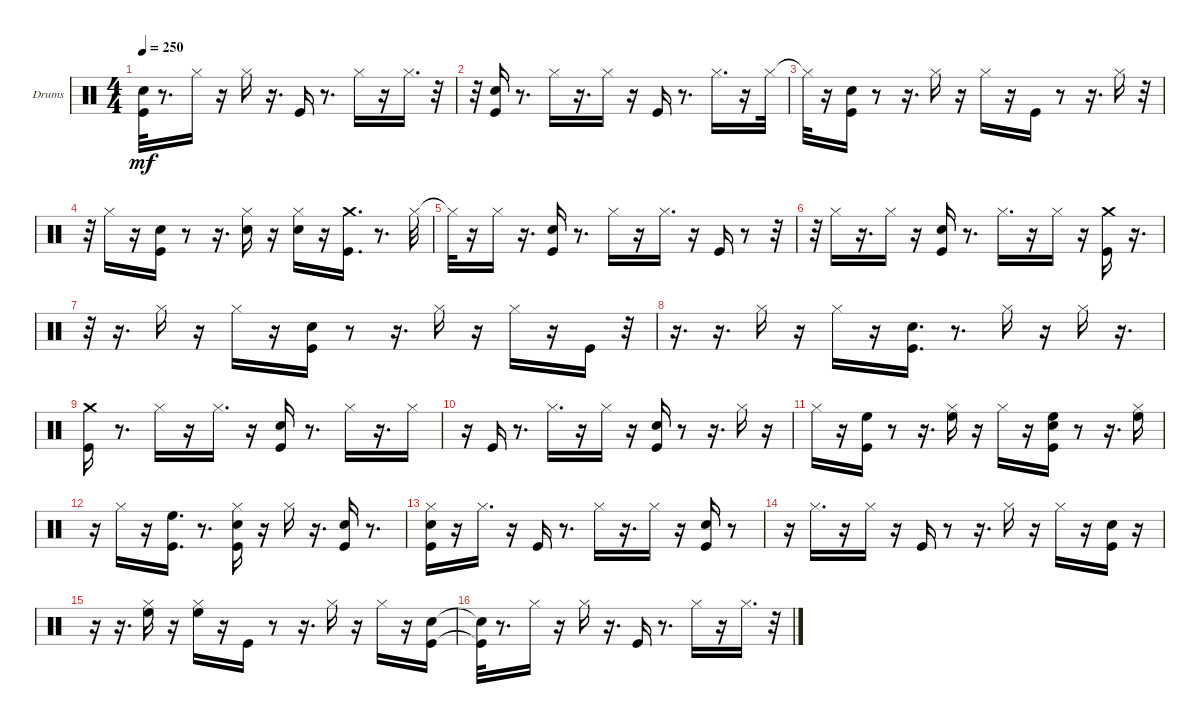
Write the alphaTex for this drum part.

\bracketExtendMode groupsimilarinstruments
\firstSystemTrackNameOrientation horizontal
\otherSystemsTrackNameOrientation horizontal
\track ("Drums" "Drums") {instrument percussion}
\staff {score}
\articulation defaults
\ts (4 4)
\tempo 250
\clef neutral
\ks c
("Kick (hit)"{t} "Snare (hit) 2"{t}).32{dy mf} r.8{d} "Hi-Hat (closed)".16 r.16 "Hi-Hat (closed)".16 r.16{d} "Kick (hit)".16 r.8{d} "Hi-Hat (closed)".16 r.16 "Hi-Hat (closed)".16{d} r.32 |
r.32 ("Kick (hit)" "Snare (hit) 2").16 r.8{d} "Hi-Hat (closed)".16 r.16{d} "Hi-Hat (closed)".16 r.16 "Kick (hit)".16 r.8{d} "Hi-Hat (closed)".16{d} r.16 "Hi-Hat (closed)".32 |
"Hi-Hat (closed)"{t}.32 r.16 ("Kick (hit)" "Snare (hit) 2").16 r.8 r.16{d} "Hi-Hat (closed)".16 r.16 "Hi-Hat (closed)".16 r.16 "Kick (hit)".16 r.8 r.16{d} "Hi-Hat (closed)".16 r.32 |
r.32 "Hi-Hat (closed)".16 r.16 ("Kick (hit)" "Snare (hit) 2").16 r.8 r.16{d} ("Hi-Hat (closed)" "Snare (hit) 2").16 r.16 ("Hi-Hat (closed)" "Snare (hit) 2").16 r.16 ("Kick (hit)" "Crash medium (hit)").16{d} r.8{d} "Hi-Hat (closed)".32 |
"Hi-Hat (closed)"{t}.32 r.16 "Hi-Hat (closed)".16 r.16{d} ("Kick (hit)" "Snare (hit) 2").16 r.8{d} "Hi-Hat (closed)".16 r.16 "Hi-Hat (closed)".16{d} r.16 "Kick (hit)".16 r.8 r.32 |
r.32 "Hi-Hat (closed)".16 r.16{d} "Hi-Hat (closed)".16 r.16 ("Kick (hit)" "Snare (hit) 2").16 r.8{d} "Hi-Hat (closed)".16{d} r.16 "Hi-Hat (closed)".16 r.16 ("Kick (hit)" "Crash medium (hit)").16 r.16{d} |
r.32 r.16{d} "Hi-Hat (closed)".16 r.16 "Hi-Hat (closed)".16 r.16 ("Kick (hit)" "Snare (hit) 2").16 r.8 r.16{d} "Hi-Hat (closed)".16 r.16 "Hi-Hat (closed)".16 r.16 "Kick (hit)".16 r.32 |
r.16{d} r.16{d} "Hi-Hat (closed)".16 r.16 "Hi-Hat (closed)".16 r.16 ("Kick (hit)" "Snare (hit) 2").16{d} r.8{d} "Hi-Hat (closed)".16 r.16 "Hi-Hat (closed)".16 r.16{d} |
("Kick (hit)" "Crash medium (hit)").16 r.8{d} "Hi-Hat (closed)".16 r.16 "Hi-Hat (closed)".16{d} r.16 ("Kick (hit)" "Snare (hit) 2").16 r.8{d} "Hi-Hat (closed)".16 r.16{d} "Hi-Hat (closed)".16 |
r.16 "Kick (hit)".16 r.8{d} "Hi-Hat (closed)".16{d} r.16 "Hi-Hat (closed)".16 r.16 ("Kick (hit)" "Snare (hit) 2").16 r.8 r.16{d} "Hi-Hat (closed)".16 r.16 |
"Hi-Hat (closed)".16 r.16 ("High Floor Tom (hit)" "Kick (hit)").16 r.8 r.16{d} ("High Floor Tom (hit)" "Hi-Hat (closed)").16 r.16 "Hi-Hat (closed)".16 r.16 ("High Floor Tom (hit)" "Kick (hit)" "Snare (hit) 2").16 r.8 r.16{d} ("High Floor Tom (hit)" "Hi-Hat (closed)").16 |
r.16 "Hi-Hat (closed)".16 r.16 ("High Floor Tom (hit)" "Kick (hit)").16{d} r.8{d} ("Hi-Hat (closed)" "Kick (hit)" "Snare (hit) 2").16 r.16 "Hi-Hat (closed)".16 r.16{d} ("Kick (hit)" "Snare (hit) 2").16 r.8{d} |
("Hi-Hat (closed)" "Kick (hit)" "Snare (hit) 2").16 r.16 "Hi-Hat (closed)".16{d} r.16 "Kick (hit)".16 r.8{d} "Hi-Hat (closed)".16 r.16{d} "Hi-Hat (closed)".16 r.16 ("Kick (hit)" "Snare (hit) 2").16 r.8 |
r.16 "Hi-Hat (closed)".16{d} r.16 "Hi-Hat (closed)".16 r.16 "Kick (hit)".16 r.8 r.16{d} "Hi-Hat (closed)".16 r.16 "Hi-Hat (closed)".16 r.16 ("Kick (hit)" "Snare (hit) 2").16 r.16 |
r.16 r.16{d} ("High Floor Tom (hit)" "Hi-Hat (closed)").16 r.16 ("High Floor Tom (hit)" "Hi-Hat (closed)").16 r.16 "Kick (hit)".16 r.8 r.16{d} "Hi-Hat (closed)".16 r.16 "Hi-Hat (closed)".16 r.16 ("Kick (hit)" "Snare (hit) 2").16 |
("Kick (hit)"{t} "Snare (hit) 2"{t}).32 r.8{d} "Hi-Hat (closed)".16 r.16 "Hi-Hat (closed)".16 r.16{d} "Kick (hit)".16 r.8{d} "Hi-Hat (closed)".16 r.16 "Hi-Hat (closed)".16{d} r.32
